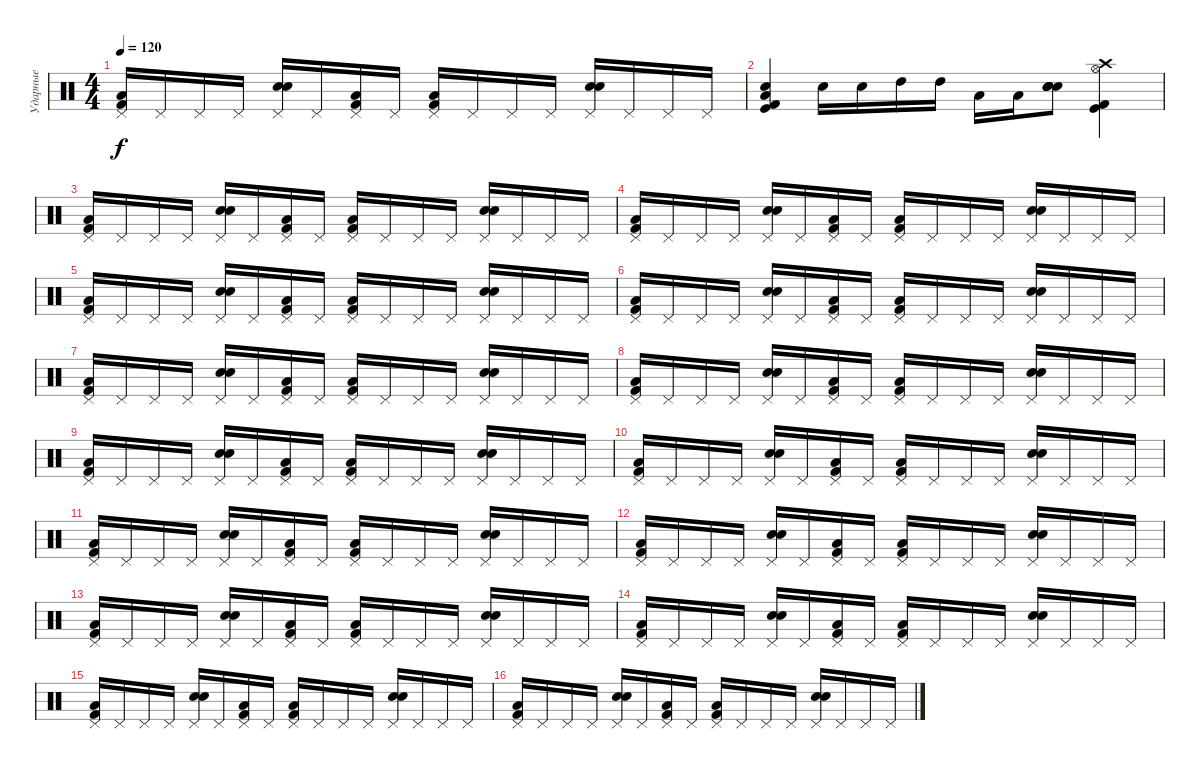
\track ("Ударные" "Ударные") {instrument percussion}
\staff {score}
\articulation defaults
\ts (4 4)
\tempo 120
\clef neutral
\ks c
("Kick (hit) 2" "Low Floor Tom (hit)" "Pedal Hi-Hat (hit)").16{dy f} "Pedal Hi-Hat (hit)".16 "Pedal Hi-Hat (hit)".16 "Pedal Hi-Hat (hit)".16 ("Electric Snare (hit)" "Electric Snare (hit)" "Pedal Hi-Hat (hit)").16 "Pedal Hi-Hat (hit)".16 ("Kick (hit) 2" "Low Floor Tom (hit)" "Pedal Hi-Hat (hit)").16 "Pedal Hi-Hat (hit)".16 ("Kick (hit) 2" "Low Floor Tom (hit)" "Pedal Hi-Hat (hit)").16 "Pedal Hi-Hat (hit)".16 "Pedal Hi-Hat (hit)".16 "Pedal Hi-Hat (hit)".16 ("Electric Snare (hit)" "Electric Snare (hit)" "Pedal Hi-Hat (hit)").16 "Pedal Hi-Hat (hit)".16 "Pedal Hi-Hat (hit)".16 "Pedal Hi-Hat (hit)".16 |
("Low Floor Tom (hit)" "Kick (hit)" "Snare (hit) 2" "Kick (hit) 2").4 "Electric Snare (hit)".16 "Electric Snare (hit)".16 "High Tom (hit)".16 "High Tom (hit)".16 "Low Tom (hit)".16 "Low Tom (hit)".16 ("Snare (hit) 2" "Snare (hit) 2" "Snare (hit) 2" "Snare (hit) 2").8 ("Hi-Hat (open)" "Crash high (hit)" "Kick (hit)" "Kick (hit) 2").4 |
("Kick (hit) 2" "Low Floor Tom (hit)" "Pedal Hi-Hat (hit)").16 "Pedal Hi-Hat (hit)".16 "Pedal Hi-Hat (hit)".16 "Pedal Hi-Hat (hit)".16 ("Electric Snare (hit)" "Electric Snare (hit)" "Pedal Hi-Hat (hit)").16 "Pedal Hi-Hat (hit)".16 ("Kick (hit) 2" "Low Floor Tom (hit)" "Pedal Hi-Hat (hit)").16 "Pedal Hi-Hat (hit)".16 ("Kick (hit) 2" "Low Floor Tom (hit)" "Pedal Hi-Hat (hit)").16 "Pedal Hi-Hat (hit)".16 "Pedal Hi-Hat (hit)".16 "Pedal Hi-Hat (hit)".16 ("Electric Snare (hit)" "Electric Snare (hit)" "Pedal Hi-Hat (hit)").16 "Pedal Hi-Hat (hit)".16 "Pedal Hi-Hat (hit)".16 "Pedal Hi-Hat (hit)".16 |
("Kick (hit) 2" "Low Floor Tom (hit)" "Pedal Hi-Hat (hit)").16 "Pedal Hi-Hat (hit)".16 "Pedal Hi-Hat (hit)".16 "Pedal Hi-Hat (hit)".16 ("Electric Snare (hit)" "Electric Snare (hit)" "Pedal Hi-Hat (hit)").16 "Pedal Hi-Hat (hit)".16 ("Kick (hit) 2" "Low Floor Tom (hit)" "Pedal Hi-Hat (hit)").16 "Pedal Hi-Hat (hit)".16 ("Kick (hit) 2" "Low Floor Tom (hit)" "Pedal Hi-Hat (hit)").16 "Pedal Hi-Hat (hit)".16 "Pedal Hi-Hat (hit)".16 "Pedal Hi-Hat (hit)".16 ("Electric Snare (hit)" "Electric Snare (hit)" "Pedal Hi-Hat (hit)").16 "Pedal Hi-Hat (hit)".16 "Pedal Hi-Hat (hit)".16 "Pedal Hi-Hat (hit)".16 |
("Kick (hit) 2" "Low Floor Tom (hit)" "Pedal Hi-Hat (hit)").16 "Pedal Hi-Hat (hit)".16 "Pedal Hi-Hat (hit)".16 "Pedal Hi-Hat (hit)".16 ("Electric Snare (hit)" "Electric Snare (hit)" "Pedal Hi-Hat (hit)").16 "Pedal Hi-Hat (hit)".16 ("Kick (hit) 2" "Low Floor Tom (hit)" "Pedal Hi-Hat (hit)").16 "Pedal Hi-Hat (hit)".16 ("Kick (hit) 2" "Low Floor Tom (hit)" "Pedal Hi-Hat (hit)").16 "Pedal Hi-Hat (hit)".16 "Pedal Hi-Hat (hit)".16 "Pedal Hi-Hat (hit)".16 ("Electric Snare (hit)" "Electric Snare (hit)" "Pedal Hi-Hat (hit)").16 "Pedal Hi-Hat (hit)".16 "Pedal Hi-Hat (hit)".16 "Pedal Hi-Hat (hit)".16 |
("Kick (hit) 2" "Low Floor Tom (hit)" "Pedal Hi-Hat (hit)").16 "Pedal Hi-Hat (hit)".16 "Pedal Hi-Hat (hit)".16 "Pedal Hi-Hat (hit)".16 ("Electric Snare (hit)" "Electric Snare (hit)" "Pedal Hi-Hat (hit)").16 "Pedal Hi-Hat (hit)".16 ("Kick (hit) 2" "Low Floor Tom (hit)" "Pedal Hi-Hat (hit)").16 "Pedal Hi-Hat (hit)".16 ("Kick (hit) 2" "Low Floor Tom (hit)" "Pedal Hi-Hat (hit)").16 "Pedal Hi-Hat (hit)".16 "Pedal Hi-Hat (hit)".16 "Pedal Hi-Hat (hit)".16 ("Electric Snare (hit)" "Electric Snare (hit)" "Pedal Hi-Hat (hit)").16 "Pedal Hi-Hat (hit)".16 "Pedal Hi-Hat (hit)".16 "Pedal Hi-Hat (hit)".16 |
("Kick (hit) 2" "Low Floor Tom (hit)" "Pedal Hi-Hat (hit)").16 "Pedal Hi-Hat (hit)".16 "Pedal Hi-Hat (hit)".16 "Pedal Hi-Hat (hit)".16 ("Electric Snare (hit)" "Electric Snare (hit)" "Pedal Hi-Hat (hit)").16 "Pedal Hi-Hat (hit)".16 ("Kick (hit) 2" "Low Floor Tom (hit)" "Pedal Hi-Hat (hit)").16 "Pedal Hi-Hat (hit)".16 ("Kick (hit) 2" "Low Floor Tom (hit)" "Pedal Hi-Hat (hit)").16 "Pedal Hi-Hat (hit)".16 "Pedal Hi-Hat (hit)".16 "Pedal Hi-Hat (hit)".16 ("Electric Snare (hit)" "Electric Snare (hit)" "Pedal Hi-Hat (hit)").16 "Pedal Hi-Hat (hit)".16 "Pedal Hi-Hat (hit)".16 "Pedal Hi-Hat (hit)".16 |
("Kick (hit) 2" "Low Floor Tom (hit)" "Pedal Hi-Hat (hit)").16 "Pedal Hi-Hat (hit)".16 "Pedal Hi-Hat (hit)".16 "Pedal Hi-Hat (hit)".16 ("Electric Snare (hit)" "Electric Snare (hit)" "Pedal Hi-Hat (hit)").16 "Pedal Hi-Hat (hit)".16 ("Kick (hit) 2" "Low Floor Tom (hit)" "Pedal Hi-Hat (hit)").16 "Pedal Hi-Hat (hit)".16 ("Kick (hit) 2" "Low Floor Tom (hit)" "Pedal Hi-Hat (hit)").16 "Pedal Hi-Hat (hit)".16 "Pedal Hi-Hat (hit)".16 "Pedal Hi-Hat (hit)".16 ("Electric Snare (hit)" "Electric Snare (hit)" "Pedal Hi-Hat (hit)").16 "Pedal Hi-Hat (hit)".16 "Pedal Hi-Hat (hit)".16 "Pedal Hi-Hat (hit)".16 |
("Kick (hit) 2" "Low Floor Tom (hit)" "Pedal Hi-Hat (hit)").16 "Pedal Hi-Hat (hit)".16 "Pedal Hi-Hat (hit)".16 "Pedal Hi-Hat (hit)".16 ("Electric Snare (hit)" "Electric Snare (hit)" "Pedal Hi-Hat (hit)").16 "Pedal Hi-Hat (hit)".16 ("Kick (hit) 2" "Low Floor Tom (hit)" "Pedal Hi-Hat (hit)").16 "Pedal Hi-Hat (hit)".16 ("Kick (hit) 2" "Low Floor Tom (hit)" "Pedal Hi-Hat (hit)").16 "Pedal Hi-Hat (hit)".16 "Pedal Hi-Hat (hit)".16 "Pedal Hi-Hat (hit)".16 ("Electric Snare (hit)" "Electric Snare (hit)" "Pedal Hi-Hat (hit)").16 "Pedal Hi-Hat (hit)".16 "Pedal Hi-Hat (hit)".16 "Pedal Hi-Hat (hit)".16 |
("Kick (hit) 2" "Low Floor Tom (hit)" "Pedal Hi-Hat (hit)").16 "Pedal Hi-Hat (hit)".16 "Pedal Hi-Hat (hit)".16 "Pedal Hi-Hat (hit)".16 ("Electric Snare (hit)" "Electric Snare (hit)" "Pedal Hi-Hat (hit)").16 "Pedal Hi-Hat (hit)".16 ("Kick (hit) 2" "Low Floor Tom (hit)" "Pedal Hi-Hat (hit)").16 "Pedal Hi-Hat (hit)".16 ("Kick (hit) 2" "Low Floor Tom (hit)" "Pedal Hi-Hat (hit)").16 "Pedal Hi-Hat (hit)".16 "Pedal Hi-Hat (hit)".16 "Pedal Hi-Hat (hit)".16 ("Electric Snare (hit)" "Electric Snare (hit)" "Pedal Hi-Hat (hit)").16 "Pedal Hi-Hat (hit)".16 "Pedal Hi-Hat (hit)".16 "Pedal Hi-Hat (hit)".16 |
("Kick (hit) 2" "Low Floor Tom (hit)" "Pedal Hi-Hat (hit)").16 "Pedal Hi-Hat (hit)".16 "Pedal Hi-Hat (hit)".16 "Pedal Hi-Hat (hit)".16 ("Electric Snare (hit)" "Electric Snare (hit)" "Pedal Hi-Hat (hit)").16 "Pedal Hi-Hat (hit)".16 ("Kick (hit) 2" "Low Floor Tom (hit)" "Pedal Hi-Hat (hit)").16 "Pedal Hi-Hat (hit)".16 ("Kick (hit) 2" "Low Floor Tom (hit)" "Pedal Hi-Hat (hit)").16 "Pedal Hi-Hat (hit)".16 "Pedal Hi-Hat (hit)".16 "Pedal Hi-Hat (hit)".16 ("Electric Snare (hit)" "Electric Snare (hit)" "Pedal Hi-Hat (hit)").16 "Pedal Hi-Hat (hit)".16 "Pedal Hi-Hat (hit)".16 "Pedal Hi-Hat (hit)".16 |
("Kick (hit) 2" "Low Floor Tom (hit)" "Pedal Hi-Hat (hit)").16 "Pedal Hi-Hat (hit)".16 "Pedal Hi-Hat (hit)".16 "Pedal Hi-Hat (hit)".16 ("Electric Snare (hit)" "Electric Snare (hit)" "Pedal Hi-Hat (hit)").16 "Pedal Hi-Hat (hit)".16 ("Kick (hit) 2" "Low Floor Tom (hit)" "Pedal Hi-Hat (hit)").16 "Pedal Hi-Hat (hit)".16 ("Kick (hit) 2" "Low Floor Tom (hit)" "Pedal Hi-Hat (hit)").16 "Pedal Hi-Hat (hit)".16 "Pedal Hi-Hat (hit)".16 "Pedal Hi-Hat (hit)".16 ("Electric Snare (hit)" "Electric Snare (hit)" "Pedal Hi-Hat (hit)").16 "Pedal Hi-Hat (hit)".16 "Pedal Hi-Hat (hit)".16 "Pedal Hi-Hat (hit)".16 |
("Kick (hit) 2" "Low Floor Tom (hit)" "Pedal Hi-Hat (hit)").16 "Pedal Hi-Hat (hit)".16 "Pedal Hi-Hat (hit)".16 "Pedal Hi-Hat (hit)".16 ("Electric Snare (hit)" "Electric Snare (hit)" "Pedal Hi-Hat (hit)").16 "Pedal Hi-Hat (hit)".16 ("Kick (hit) 2" "Low Floor Tom (hit)" "Pedal Hi-Hat (hit)").16 "Pedal Hi-Hat (hit)".16 ("Kick (hit) 2" "Low Floor Tom (hit)" "Pedal Hi-Hat (hit)").16 "Pedal Hi-Hat (hit)".16 "Pedal Hi-Hat (hit)".16 "Pedal Hi-Hat (hit)".16 ("Electric Snare (hit)" "Electric Snare (hit)" "Pedal Hi-Hat (hit)").16 "Pedal Hi-Hat (hit)".16 "Pedal Hi-Hat (hit)".16 "Pedal Hi-Hat (hit)".16 |
("Kick (hit) 2" "Low Floor Tom (hit)" "Pedal Hi-Hat (hit)").16 "Pedal Hi-Hat (hit)".16 "Pedal Hi-Hat (hit)".16 "Pedal Hi-Hat (hit)".16 ("Electric Snare (hit)" "Electric Snare (hit)" "Pedal Hi-Hat (hit)").16 "Pedal Hi-Hat (hit)".16 ("Kick (hit) 2" "Low Floor Tom (hit)" "Pedal Hi-Hat (hit)").16 "Pedal Hi-Hat (hit)".16 ("Kick (hit) 2" "Low Floor Tom (hit)" "Pedal Hi-Hat (hit)").16 "Pedal Hi-Hat (hit)".16 "Pedal Hi-Hat (hit)".16 "Pedal Hi-Hat (hit)".16 ("Electric Snare (hit)" "Electric Snare (hit)" "Pedal Hi-Hat (hit)").16 "Pedal Hi-Hat (hit)".16 "Pedal Hi-Hat (hit)".16 "Pedal Hi-Hat (hit)".16 |
("Kick (hit) 2" "Low Floor Tom (hit)" "Pedal Hi-Hat (hit)").16 "Pedal Hi-Hat (hit)".16 "Pedal Hi-Hat (hit)".16 "Pedal Hi-Hat (hit)".16 ("Electric Snare (hit)" "Electric Snare (hit)" "Pedal Hi-Hat (hit)").16 "Pedal Hi-Hat (hit)".16 ("Kick (hit) 2" "Low Floor Tom (hit)" "Pedal Hi-Hat (hit)").16 "Pedal Hi-Hat (hit)".16 ("Kick (hit) 2" "Low Floor Tom (hit)" "Pedal Hi-Hat (hit)").16 "Pedal Hi-Hat (hit)".16 "Pedal Hi-Hat (hit)".16 "Pedal Hi-Hat (hit)".16 ("Electric Snare (hit)" "Electric Snare (hit)" "Pedal Hi-Hat (hit)").16 "Pedal Hi-Hat (hit)".16 "Pedal Hi-Hat (hit)".16 "Pedal Hi-Hat (hit)".16 |
("Kick (hit) 2" "Low Floor Tom (hit)" "Pedal Hi-Hat (hit)").16 "Pedal Hi-Hat (hit)".16 "Pedal Hi-Hat (hit)".16 "Pedal Hi-Hat (hit)".16 ("Electric Snare (hit)" "Electric Snare (hit)" "Pedal Hi-Hat (hit)").16 "Pedal Hi-Hat (hit)".16 ("Kick (hit) 2" "Low Floor Tom (hit)" "Pedal Hi-Hat (hit)").16 "Pedal Hi-Hat (hit)".16 ("Kick (hit) 2" "Low Floor Tom (hit)" "Pedal Hi-Hat (hit)").16 "Pedal Hi-Hat (hit)".16 "Pedal Hi-Hat (hit)".16 "Pedal Hi-Hat (hit)".16 ("Electric Snare (hit)" "Electric Snare (hit)" "Pedal Hi-Hat (hit)").16 "Pedal Hi-Hat (hit)".16 "Pedal Hi-Hat (hit)".16 "Pedal Hi-Hat (hit)".16
